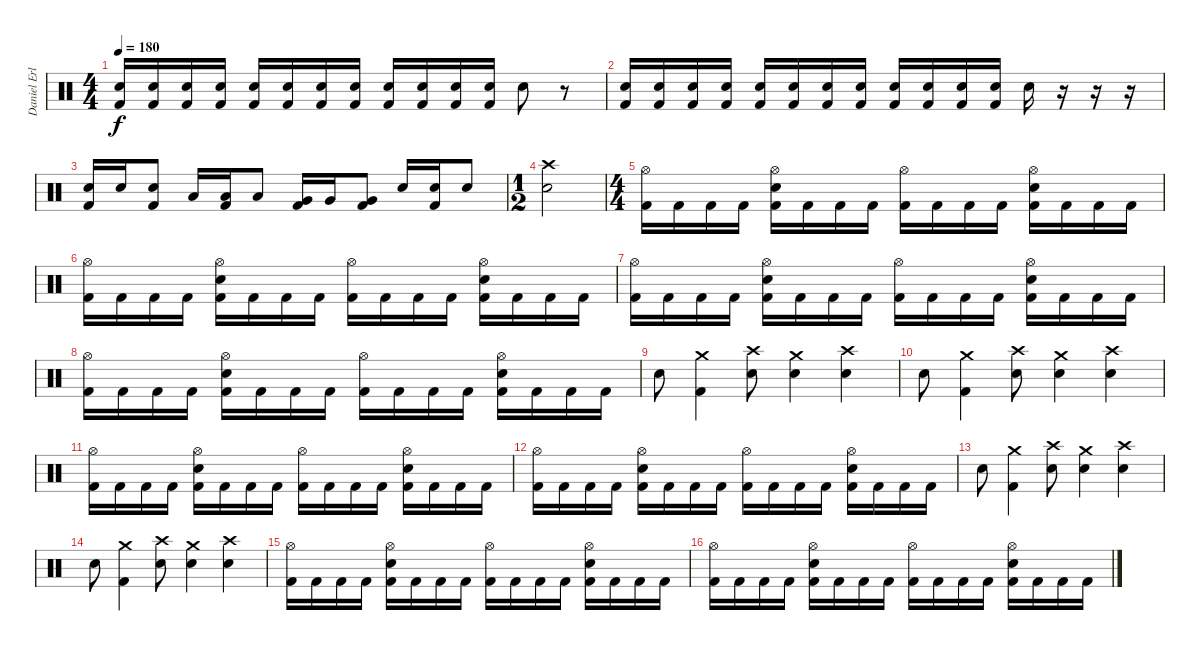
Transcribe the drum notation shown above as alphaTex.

\track ("Daniel Erlandson" "Daniel Erl") {instrument percussion}
\staff {score}
\articulation defaults
\ts (4 4)
\tempo 180
\clef neutral
\ks c
("Electric Snare (hit)" "Kick (hit) 2").16{dy f} ("Electric Snare (hit)" "Kick (hit) 2").16 ("Electric Snare (hit)" "Kick (hit) 2").16 ("Electric Snare (hit)" "Kick (hit) 2").16 ("Electric Snare (hit)" "Kick (hit) 2").16 ("Electric Snare (hit)" "Kick (hit) 2").16 ("Electric Snare (hit)" "Kick (hit) 2").16 ("Electric Snare (hit)" "Kick (hit) 2").16 ("Electric Snare (hit)" "Kick (hit) 2").16 ("Electric Snare (hit)" "Kick (hit) 2").16 ("Electric Snare (hit)" "Kick (hit) 2").16 ("Electric Snare (hit)" "Kick (hit) 2").16 "Electric Snare (hit)".8 r.8 |
("Electric Snare (hit)" "Kick (hit) 2").16 ("Electric Snare (hit)" "Kick (hit) 2").16 ("Electric Snare (hit)" "Kick (hit) 2").16 ("Electric Snare (hit)" "Kick (hit) 2").16 ("Electric Snare (hit)" "Kick (hit) 2").16 ("Electric Snare (hit)" "Kick (hit) 2").16 ("Electric Snare (hit)" "Kick (hit) 2").16 ("Electric Snare (hit)" "Kick (hit) 2").16 ("Electric Snare (hit)" "Kick (hit) 2").16 ("Electric Snare (hit)" "Kick (hit) 2").16 ("Electric Snare (hit)" "Kick (hit) 2").16 ("Electric Snare (hit)" "Kick (hit) 2").16 "Electric Snare (hit)".16 r.16 r.16 r.16 |
("Electric Snare (hit)" "Kick (hit) 2").16 "Electric Snare (hit)".16 ("Electric Snare (hit)" "Kick (hit) 2").8 "Low Tom (hit)".16 ("Low Tom (hit)" "Kick (hit) 2").16 "Low Tom (hit)".8 ("Very Low Tom (hit)" "Kick (hit) 2").16 "Very Low Tom (hit)".16 ("Very Low Tom (hit)" "Kick (hit) 2").8 "Electric Snare (hit)".16 ("Electric Snare (hit)" "Kick (hit) 2").16 "Electric Snare (hit)".8 |
\ts (1 2)
("Crash high (hit)" "Electric Snare (hit)").2 |
\ts (4 4)
("Hi-Hat (open)" "Kick (hit) 2").16 "Kick (hit) 2".16 "Kick (hit) 2".16 "Kick (hit) 2".16 ("Hi-Hat (open)" "Electric Snare (hit)" "Kick (hit) 2").16 "Kick (hit) 2".16 "Kick (hit) 2".16 "Kick (hit) 2".16 ("Hi-Hat (open)" "Kick (hit) 2").16 "Kick (hit) 2".16 "Kick (hit) 2".16 "Kick (hit) 2".16 ("Hi-Hat (open)" "Electric Snare (hit)" "Kick (hit) 2").16 "Kick (hit) 2".16 "Kick (hit) 2".16 "Kick (hit) 2".16 |
("Hi-Hat (open)" "Kick (hit) 2").16 "Kick (hit) 2".16 "Kick (hit) 2".16 "Kick (hit) 2".16 ("Hi-Hat (open)" "Electric Snare (hit)" "Kick (hit) 2").16 "Kick (hit) 2".16 "Kick (hit) 2".16 "Kick (hit) 2".16 ("Hi-Hat (open)" "Kick (hit) 2").16 "Kick (hit) 2".16 "Kick (hit) 2".16 "Kick (hit) 2".16 ("Hi-Hat (open)" "Electric Snare (hit)" "Kick (hit) 2").16 "Kick (hit) 2".16 "Kick (hit) 2".16 "Kick (hit) 2".16 |
("Hi-Hat (open)" "Kick (hit) 2").16 "Kick (hit) 2".16 "Kick (hit) 2".16 "Kick (hit) 2".16 ("Hi-Hat (open)" "Electric Snare (hit)" "Kick (hit) 2").16 "Kick (hit) 2".16 "Kick (hit) 2".16 "Kick (hit) 2".16 ("Hi-Hat (open)" "Kick (hit) 2").16 "Kick (hit) 2".16 "Kick (hit) 2".16 "Kick (hit) 2".16 ("Hi-Hat (open)" "Electric Snare (hit)" "Kick (hit) 2").16 "Kick (hit) 2".16 "Kick (hit) 2".16 "Kick (hit) 2".16 |
("Hi-Hat (open)" "Kick (hit) 2").16 "Kick (hit) 2".16 "Kick (hit) 2".16 "Kick (hit) 2".16 ("Hi-Hat (open)" "Electric Snare (hit)" "Kick (hit) 2").16 "Kick (hit) 2".16 "Kick (hit) 2".16 "Kick (hit) 2".16 ("Hi-Hat (open)" "Kick (hit) 2").16 "Kick (hit) 2".16 "Kick (hit) 2".16 "Kick (hit) 2".16 ("Hi-Hat (open)" "Electric Snare (hit)" "Kick (hit) 2").16 "Kick (hit) 2".16 "Kick (hit) 2".16 "Kick (hit) 2".16 |
"Electric Snare (hit)".8 ("Crash medium (hit)" "Kick (hit) 2").4 ("Crash high (hit)" "Electric Snare (hit)").8 ("Crash medium (hit)" "Electric Snare (hit)").4 ("Crash high (hit)" "Electric Snare (hit)").4 |
"Electric Snare (hit)".8 ("Crash medium (hit)" "Kick (hit) 2").4 ("Crash high (hit)" "Electric Snare (hit)").8 ("Crash medium (hit)" "Electric Snare (hit)").4 ("Crash high (hit)" "Electric Snare (hit)").4 |
("Hi-Hat (open)" "Kick (hit) 2").16 "Kick (hit) 2".16 "Kick (hit) 2".16 "Kick (hit) 2".16 ("Hi-Hat (open)" "Electric Snare (hit)" "Kick (hit) 2").16 "Kick (hit) 2".16 "Kick (hit) 2".16 "Kick (hit) 2".16 ("Hi-Hat (open)" "Kick (hit) 2").16 "Kick (hit) 2".16 "Kick (hit) 2".16 "Kick (hit) 2".16 ("Hi-Hat (open)" "Electric Snare (hit)" "Kick (hit) 2").16 "Kick (hit) 2".16 "Kick (hit) 2".16 "Kick (hit) 2".16 |
("Hi-Hat (open)" "Kick (hit) 2").16 "Kick (hit) 2".16 "Kick (hit) 2".16 "Kick (hit) 2".16 ("Hi-Hat (open)" "Electric Snare (hit)" "Kick (hit) 2").16 "Kick (hit) 2".16 "Kick (hit) 2".16 "Kick (hit) 2".16 ("Hi-Hat (open)" "Kick (hit) 2").16 "Kick (hit) 2".16 "Kick (hit) 2".16 "Kick (hit) 2".16 ("Hi-Hat (open)" "Electric Snare (hit)" "Kick (hit) 2").16 "Kick (hit) 2".16 "Kick (hit) 2".16 "Kick (hit) 2".16 |
"Electric Snare (hit)".8 ("Crash medium (hit)" "Kick (hit) 2").4 ("Crash high (hit)" "Electric Snare (hit)").8 ("Crash medium (hit)" "Electric Snare (hit)").4 ("Crash high (hit)" "Electric Snare (hit)").4 |
"Electric Snare (hit)".8 ("Crash medium (hit)" "Kick (hit) 2").4 ("Crash high (hit)" "Electric Snare (hit)").8 ("Crash medium (hit)" "Electric Snare (hit)").4 ("Crash high (hit)" "Electric Snare (hit)").4 |
("Hi-Hat (open)" "Kick (hit) 2").16 "Kick (hit) 2".16 "Kick (hit) 2".16 "Kick (hit) 2".16 ("Hi-Hat (open)" "Electric Snare (hit)" "Kick (hit) 2").16 "Kick (hit) 2".16 "Kick (hit) 2".16 "Kick (hit) 2".16 ("Hi-Hat (open)" "Kick (hit) 2").16 "Kick (hit) 2".16 "Kick (hit) 2".16 "Kick (hit) 2".16 ("Hi-Hat (open)" "Electric Snare (hit)" "Kick (hit) 2").16 "Kick (hit) 2".16 "Kick (hit) 2".16 "Kick (hit) 2".16 |
("Hi-Hat (open)" "Kick (hit) 2").16 "Kick (hit) 2".16 "Kick (hit) 2".16 "Kick (hit) 2".16 ("Hi-Hat (open)" "Electric Snare (hit)" "Kick (hit) 2").16 "Kick (hit) 2".16 "Kick (hit) 2".16 "Kick (hit) 2".16 ("Hi-Hat (open)" "Kick (hit) 2").16 "Kick (hit) 2".16 "Kick (hit) 2".16 "Kick (hit) 2".16 ("Hi-Hat (open)" "Electric Snare (hit)" "Kick (hit) 2").16 "Kick (hit) 2".16 "Kick (hit) 2".16 "Kick (hit) 2".16
